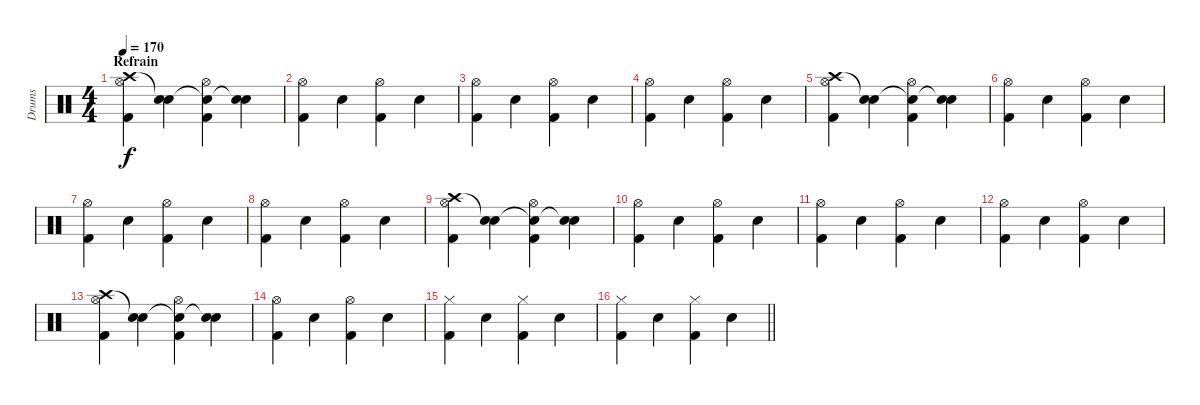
\track ("Drums" "Drums") {instrument percussion}
\staff {score}
\articulation defaults
\ts (4 4)
\section ("" "Refrain")
\tempo 170
\clef neutral
\ks c
("Crash high (hit)" "Hi-Hat (open)" "Kick (hit) 2").4{dy f} ("Snare (hit)"{t} "Snare (hit) 2").4 ("Snare (hit)"{t} "Hi-Hat (open)" "Kick (hit) 2").4 ("Snare (hit)"{t} "Snare (hit) 2").4 |
("Hi-Hat (open)" "Kick (hit) 2").4 "Snare (hit) 2".4 ("Hi-Hat (open)" "Kick (hit) 2").4 "Snare (hit) 2".4 |
("Hi-Hat (open)" "Kick (hit) 2").4 "Snare (hit) 2".4 ("Hi-Hat (open)" "Kick (hit) 2").4 "Snare (hit) 2".4 |
("Hi-Hat (open)" "Kick (hit) 2").4 "Snare (hit) 2".4 ("Hi-Hat (open)" "Kick (hit) 2").4 "Snare (hit) 2".4 |
("Crash high (hit)" "Hi-Hat (open)" "Kick (hit) 2").4 ("Snare (hit)"{t} "Snare (hit) 2").4 ("Snare (hit)"{t} "Hi-Hat (open)" "Kick (hit) 2").4 ("Snare (hit)"{t} "Snare (hit) 2").4 |
("Hi-Hat (open)" "Kick (hit) 2").4 "Snare (hit) 2".4 ("Hi-Hat (open)" "Kick (hit) 2").4 "Snare (hit) 2".4 |
("Hi-Hat (open)" "Kick (hit) 2").4 "Snare (hit) 2".4 ("Hi-Hat (open)" "Kick (hit) 2").4 "Snare (hit) 2".4 |
("Hi-Hat (open)" "Kick (hit) 2").4 "Snare (hit) 2".4 ("Hi-Hat (open)" "Kick (hit) 2").4 "Snare (hit) 2".4 |
("Crash high (hit)" "Hi-Hat (open)" "Kick (hit) 2").4 ("Snare (hit)"{t} "Snare (hit) 2").4 ("Snare (hit)"{t} "Hi-Hat (open)" "Kick (hit) 2").4 ("Snare (hit)"{t} "Snare (hit) 2").4 |
("Hi-Hat (open)" "Kick (hit) 2").4 "Snare (hit) 2".4 ("Hi-Hat (open)" "Kick (hit) 2").4 "Snare (hit) 2".4 |
("Hi-Hat (open)" "Kick (hit) 2").4 "Snare (hit) 2".4 ("Hi-Hat (open)" "Kick (hit) 2").4 "Snare (hit) 2".4 |
("Hi-Hat (open)" "Kick (hit) 2").4 "Snare (hit) 2".4 ("Hi-Hat (open)" "Kick (hit) 2").4 "Snare (hit) 2".4 |
("Crash high (hit)" "Hi-Hat (open)" "Kick (hit) 2").4 ("Snare (hit)"{t} "Snare (hit) 2").4 ("Snare (hit)"{t} "Hi-Hat (open)" "Kick (hit) 2").4 ("Snare (hit)"{t} "Snare (hit) 2").4 |
("Hi-Hat (open)" "Kick (hit) 2").4 "Snare (hit) 2".4 ("Hi-Hat (open)" "Kick (hit) 2").4 "Snare (hit) 2".4 |
("Hi-Hat (closed)" "Kick (hit) 2").4 "Snare (hit) 2".4 ("Hi-Hat (closed)" "Kick (hit) 2").4 "Snare (hit) 2".4 |
\barLineRight lightlight
("Hi-Hat (closed)" "Kick (hit) 2").4 "Snare (hit) 2".4 ("Hi-Hat (closed)" "Kick (hit) 2").4 "Snare (hit) 2".4
